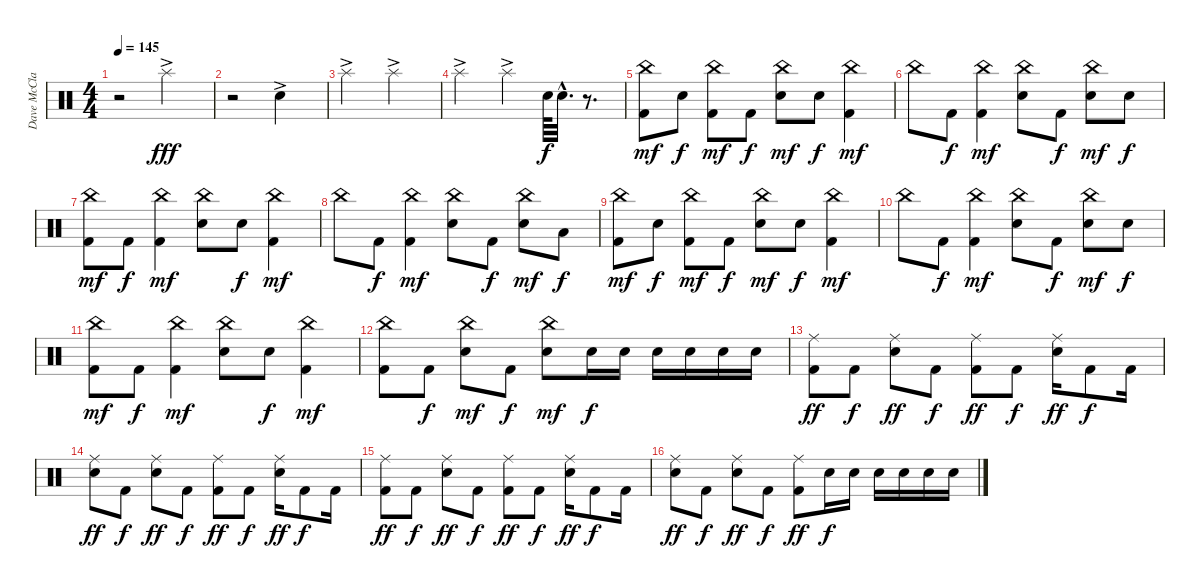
\track ("Dave McClain" "Dave McCla") {instrument percussion}
\staff {score}
\articulation defaults
\ts (4 4)
\tempo 145
\clef neutral
\ks c
r.2{dy fff} "Splash (hit)"{ac}.2 |
r.2 "Metronome (bell)"{ac}.2 |
"Splash (hit)"{ac}.2 "Splash (hit)"{ac}.2 |
"Splash (hit)"{ac}.2 "Splash (hit)"{ac}.4 "Electric Snare (hit)".64{dy f} "Snare (hit) 2"{hac}.32{d} r.8{d} |
("China (hit)" "Kick (hit) 2").8{dy mf} "Snare (hit) 2".8{dy f} ("China (hit)" "Kick (hit) 2").8{dy mf} "Kick (hit) 2".8{dy f} ("China (hit)" "Snare (hit) 2").8{dy mf} "Snare (hit) 2".8{dy f} ("China (hit)" "Kick (hit) 2").4{dy mf} |
"China (hit)".8 "Kick (hit) 2".8{dy f} ("China (hit)" "Kick (hit) 2").4{dy mf} ("China (hit)" "Snare (hit) 2").8 "Kick (hit) 2".8{dy f} ("China (hit)" "Snare (hit) 2").8{dy mf} "Snare (hit) 2".8{dy f} |
("China (hit)" "Kick (hit) 2").8{dy mf} "Kick (hit) 2".8{dy f} ("China (hit)" "Kick (hit) 2").4{dy mf} ("China (hit)" "Snare (hit) 2").8 "Snare (hit) 2".8{dy f} ("China (hit)" "Kick (hit) 2").4{dy mf} |
"China (hit)".8 "Kick (hit) 2".8{dy f} ("China (hit)" "Kick (hit) 2").4{dy mf} ("China (hit)" "Snare (hit) 2").8 "Kick (hit) 2".8{dy f} ("China (hit)" "Snare (hit) 2").8{dy mf} "Low Floor Tom (hit)".8{dy f} |
("China (hit)" "Kick (hit) 2").8{dy mf} "Snare (hit) 2".8{dy f} ("China (hit)" "Kick (hit) 2").8{dy mf} "Kick (hit) 2".8{dy f} ("China (hit)" "Snare (hit) 2").8{dy mf} "Snare (hit) 2".8{dy f} ("China (hit)" "Kick (hit) 2").4{dy mf} |
"China (hit)".8 "Kick (hit) 2".8{dy f} ("China (hit)" "Kick (hit) 2").4{dy mf} ("China (hit)" "Snare (hit) 2").8 "Kick (hit) 2".8{dy f} ("China (hit)" "Snare (hit) 2").8{dy mf} "Snare (hit) 2".8{dy f} |
("China (hit)" "Kick (hit) 2").8{dy mf} "Kick (hit) 2".8{dy f} ("China (hit)" "Kick (hit) 2").4{dy mf} ("China (hit)" "Snare (hit) 2").8 "Snare (hit) 2".8{dy f} ("China (hit)" "Kick (hit) 2").4{dy mf} |
("China (hit)" "Kick (hit) 2").8 "Kick (hit) 2".8{dy f} ("China (hit)" "Snare (hit) 2").8{dy mf} "Kick (hit) 2".8{dy f} ("China (hit)" "Snare (hit) 2").8{dy mf} "Snare (hit) 2".16{dy f} "Snare (hit) 2".16 "Snare (hit) 2".16 "Snare (hit) 2".16 "Snare (hit) 2".16 "Snare (hit) 2".16 |
("Ride (middle)" "Kick (hit) 2").8{dy ff} "Kick (hit) 2".8{dy f} ("Ride (middle)" "Snare (hit) 2").8{dy ff} "Kick (hit) 2".8{dy f} ("Ride (middle)" "Kick (hit) 2").8{dy ff} "Kick (hit) 2".8{dy f} ("Ride (middle)" "Snare (hit) 2").16{dy ff} "Kick (hit) 2".8{dy f} "Kick (hit) 2".16 |
("Ride (middle)" "Snare (hit) 2").8{dy ff} "Kick (hit) 2".8{dy f} ("Ride (middle)" "Snare (hit) 2").8{dy ff} "Kick (hit) 2".8{dy f} ("Ride (middle)" "Kick (hit) 2").8{dy ff} "Kick (hit) 2".8{dy f} ("Ride (middle)" "Snare (hit) 2").16{dy ff} "Kick (hit) 2".8{dy f} "Kick (hit) 2".16 |
("Ride (middle)" "Kick (hit) 2").8{dy ff} "Kick (hit) 2".8{dy f} ("Ride (middle)" "Snare (hit) 2").8{dy ff} "Kick (hit) 2".8{dy f} ("Ride (middle)" "Kick (hit) 2").8{dy ff} "Kick (hit) 2".8{dy f} ("Ride (middle)" "Snare (hit) 2").16{dy ff} "Kick (hit) 2".8{dy f} "Kick (hit) 2".16 |
("Ride (middle)" "Snare (hit) 2").8{dy ff} "Kick (hit) 2".8{dy f} ("Ride (middle)" "Snare (hit) 2").8{dy ff} "Kick (hit) 2".8{dy f} ("Ride (middle)" "Kick (hit) 2").8{dy ff} "Snare (hit) 2".16{dy f} "Snare (hit) 2".16 "Snare (hit) 2".16 "Snare (hit) 2".16 "Snare (hit) 2".16 "Snare (hit) 2".16
